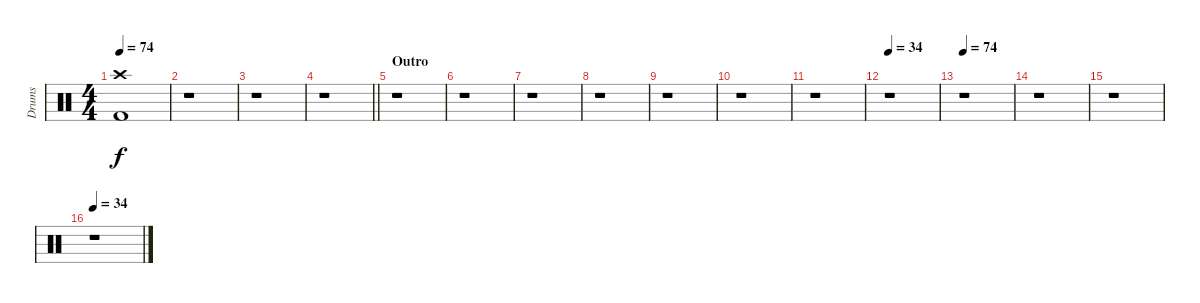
\track ("Drums" "Drums") {instrument percussion}
\staff {score}
\articulation defaults
\ts (4 4)
\tempo 74
\clef neutral
\ks c
("Crash high (hit)" "Kick (hit) 2").1{dy f} |
r.1 |
r.1 |
\barLineRight lightlight
r.1 |
\section ("" "Outro")
r.1 |
r.1 |
r.1 |
r.1 |
r.1 |
r.1 |
r.1 |
\tempo 34
r.1 |
\tempo 74
r.1 |
r.1 |
r.1 |
\tempo 34
r.1
